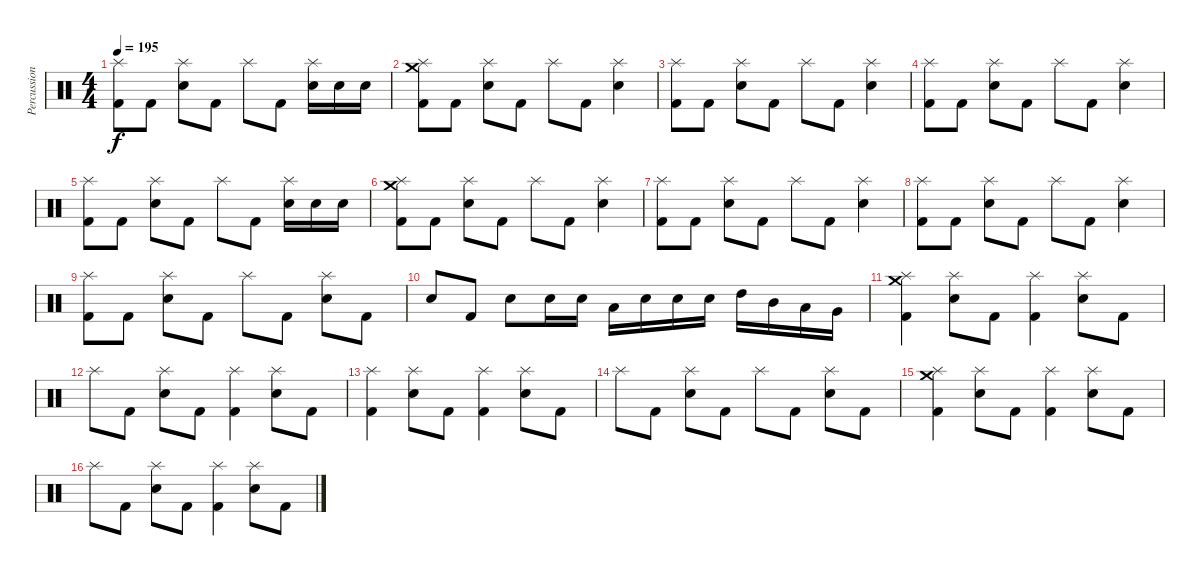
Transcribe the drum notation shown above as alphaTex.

\track ("Percussion" "Percussion") {instrument percussion}
\staff {score}
\articulation defaults
\ts (4 4)
\tempo 195
\clef neutral
\ks c
("Splash (hit)" "Kick (hit) 2").8{dy f} "Kick (hit) 2".8 ("Splash (hit)" "Electric Snare (hit)").8 "Kick (hit) 2".8 "Splash (hit)".8 "Kick (hit) 2".8 ("Splash (hit)" "Electric Snare (hit)").16 "Electric Snare (hit)".16{volume 10} "Electric Snare (hit)".16 |
("Crash medium (hit)" "Splash (hit)" "Kick (hit) 2").8{volume 13} "Kick (hit) 2".8 ("Splash (hit)" "Electric Snare (hit)").8 "Kick (hit) 2".8 "Splash (hit)".8 "Kick (hit) 2".8 ("Splash (hit)" "Electric Snare (hit)").4 |
("Splash (hit)" "Kick (hit) 2").8 "Kick (hit) 2".8 ("Splash (hit)" "Electric Snare (hit)").8 "Kick (hit) 2".8 "Splash (hit)".8 "Kick (hit) 2".8 ("Splash (hit)" "Electric Snare (hit)").4 |
("Splash (hit)" "Kick (hit) 2").8 "Kick (hit) 2".8 ("Splash (hit)" "Electric Snare (hit)").8 "Kick (hit) 2".8 "Splash (hit)".8 "Kick (hit) 2".8 ("Splash (hit)" "Electric Snare (hit)").4 |
("Splash (hit)" "Kick (hit) 2").8 "Kick (hit) 2".8 ("Splash (hit)" "Electric Snare (hit)").8 "Kick (hit) 2".8 "Splash (hit)".8 "Kick (hit) 2".8 ("Splash (hit)" "Electric Snare (hit)").16 "Electric Snare (hit)".16{volume 10} "Electric Snare (hit)".16 |
("Crash medium (hit)" "Splash (hit)" "Kick (hit) 2").8{volume 13} "Kick (hit) 2".8 ("Splash (hit)" "Electric Snare (hit)").8 "Kick (hit) 2".8 "Splash (hit)".8 "Kick (hit) 2".8 ("Splash (hit)" "Electric Snare (hit)").4 |
("Splash (hit)" "Kick (hit) 2").8 "Kick (hit) 2".8 ("Splash (hit)" "Electric Snare (hit)").8 "Kick (hit) 2".8 "Splash (hit)".8 "Kick (hit) 2".8 ("Splash (hit)" "Electric Snare (hit)").4 |
("Splash (hit)" "Kick (hit) 2").8{volume 13} "Kick (hit) 2".8 ("Splash (hit)" "Electric Snare (hit)").8 "Kick (hit) 2".8 "Splash (hit)".8 "Kick (hit) 2".8 ("Splash (hit)" "Electric Snare (hit)").4 |
("Splash (hit)" "Kick (hit) 2").8{volume 13} "Kick (hit) 2".8 ("Splash (hit)" "Electric Snare (hit)").8 "Kick (hit) 2".8 "Splash (hit)".8 "Kick (hit) 2".8 ("Splash (hit)" "Electric Snare (hit)").8 "Kick (hit) 2".8 |
"Electric Snare (hit)".8 "Kick (hit) 2".8 "Electric Snare (hit)".8 "Electric Snare (hit)".16{volume 10} "Electric Snare (hit)".16 "Low Tom (hit)".16 "Electric Snare (hit)".16 "Electric Snare (hit)".16 "Electric Snare (hit)".16 "High Tom (hit)".16{volume 12} "Mid Tom (hit)".16 "Low Tom (hit)".16 "Very Low Tom (hit)".16 |
("Crash medium (hit)" "Splash (hit)" "Kick (hit) 2").4{volume 13} ("Splash (hit)" "Electric Snare (hit)").8 "Kick (hit) 2".8 ("Splash (hit)" "Kick (hit) 2").4 ("Splash (hit)" "Electric Snare (hit)").8 "Kick (hit) 2".8 |
"Splash (hit)".8 "Kick (hit) 2".8 ("Splash (hit)" "Electric Snare (hit)").8 "Kick (hit) 2".8 ("Splash (hit)" "Kick (hit) 2").4 ("Splash (hit)" "Electric Snare (hit)").8 "Kick (hit) 2".8 |
("Splash (hit)" "Kick (hit) 2").4 ("Splash (hit)" "Electric Snare (hit)").8 "Kick (hit) 2".8 ("Splash (hit)" "Kick (hit) 2").4 ("Splash (hit)" "Electric Snare (hit)").8 "Kick (hit) 2".8 |
"Splash (hit)".8 "Kick (hit) 2".8 ("Splash (hit)" "Electric Snare (hit)").8 "Kick (hit) 2".8 "Splash (hit)".8 "Kick (hit) 2".8 ("Splash (hit)" "Electric Snare (hit)").8 "Kick (hit) 2".8 |
("Crash medium (hit)" "Splash (hit)" "Kick (hit) 2").4 ("Splash (hit)" "Electric Snare (hit)").8 "Kick (hit) 2".8 ("Splash (hit)" "Kick (hit) 2").4 ("Splash (hit)" "Electric Snare (hit)").8 "Kick (hit) 2".8 |
"Splash (hit)".8 "Kick (hit) 2".8 ("Splash (hit)" "Electric Snare (hit)").8 "Kick (hit) 2".8 ("Splash (hit)" "Kick (hit) 2").4 ("Splash (hit)" "Electric Snare (hit)").8 "Kick (hit) 2".8
